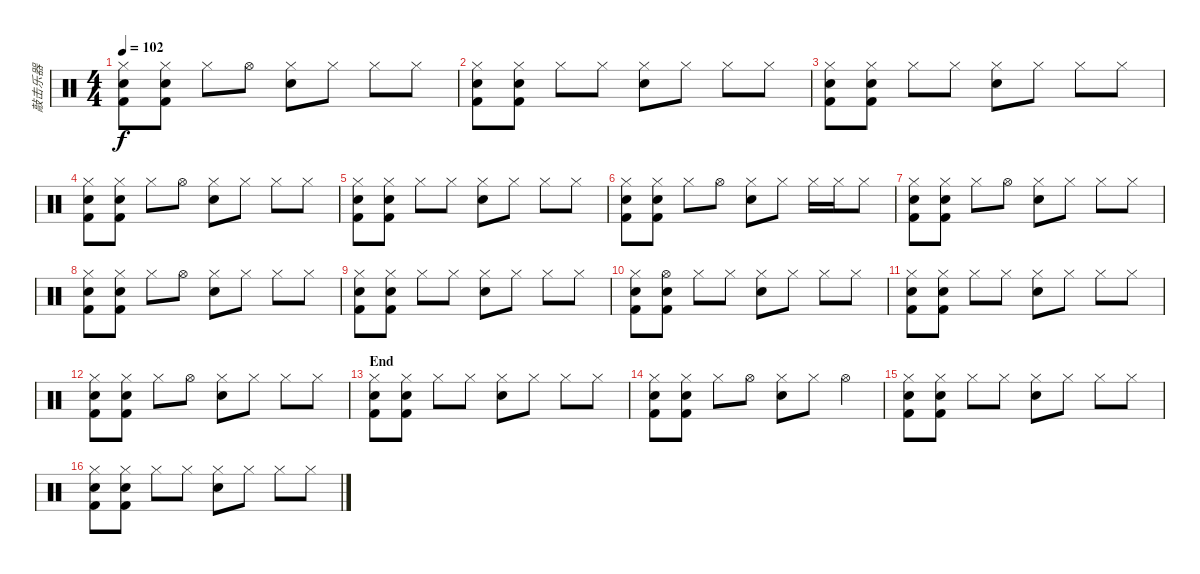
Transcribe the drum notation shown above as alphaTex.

\track ("敲击乐器" "敲击乐器") {instrument percussion}
\staff {score}
\articulation defaults
\ts (4 4)
\tempo 102
\clef neutral
\ks c
("Hi-Hat (closed)" "Kick (hit) 2" "Snare (hit)").8{dy f} ("Hi-Hat (closed)" "Kick (hit) 2" "Snare (hit)").8 "Hi-Hat (closed)".8 "Hi-Hat (open)".8 ("Hi-Hat (closed)" "Metronome (bell)").8 "Hi-Hat (closed)".8 "Hi-Hat (closed)".8 "Hi-Hat (closed)".8 |
("Hi-Hat (closed)" "Kick (hit) 2" "Snare (hit)").8 ("Hi-Hat (closed)" "Kick (hit) 2" "Snare (hit)").8 "Hi-Hat (closed)".8 "Hi-Hat (closed)".8 ("Hi-Hat (closed)" "Metronome (bell)").8 "Hi-Hat (closed)".8 "Hi-Hat (closed)".8 "Hi-Hat (closed)".8 |
("Hi-Hat (closed)" "Kick (hit) 2" "Snare (hit)").8 ("Hi-Hat (closed)" "Kick (hit) 2" "Snare (hit)").8 "Hi-Hat (closed)".8 "Hi-Hat (closed)".8 ("Hi-Hat (closed)" "Metronome (bell)").8 "Hi-Hat (closed)".8 "Hi-Hat (closed)".8 "Hi-Hat (closed)".8 |
("Hi-Hat (closed)" "Kick (hit) 2" "Snare (hit)").8 ("Hi-Hat (closed)" "Kick (hit) 2" "Snare (hit)").8 "Hi-Hat (closed)".8 "Hi-Hat (open)".8 ("Hi-Hat (closed)" "Metronome (bell)").8 "Hi-Hat (closed)".8 "Hi-Hat (closed)".8 "Hi-Hat (closed)".8 |
("Hi-Hat (closed)" "Kick (hit) 2" "Snare (hit)").8 ("Hi-Hat (closed)" "Kick (hit) 2" "Snare (hit)").8 "Hi-Hat (closed)".8 "Hi-Hat (closed)".8 ("Hi-Hat (closed)" "Metronome (bell)").8 "Hi-Hat (closed)".8 "Hi-Hat (closed)".8 "Hi-Hat (closed)".8 |
("Hi-Hat (closed)" "Kick (hit) 2" "Snare (hit)").8 ("Hi-Hat (closed)" "Kick (hit) 2" "Snare (hit)").8 "Hi-Hat (closed)".8 "Hi-Hat (open)".8 ("Hi-Hat (closed)" "Metronome (bell)").8 "Hi-Hat (closed)".8 "Hi-Hat (closed)".16 "Hi-Hat (closed)".16 "Hi-Hat (closed)".8 |
("Hi-Hat (closed)" "Kick (hit) 2" "Snare (hit)").8 ("Hi-Hat (closed)" "Kick (hit) 2" "Snare (hit)").8 "Hi-Hat (closed)".8 "Hi-Hat (open)".8 ("Hi-Hat (closed)" "Metronome (bell)").8 "Hi-Hat (closed)".8 "Hi-Hat (closed)".8 "Hi-Hat (closed)".8 |
("Hi-Hat (closed)" "Kick (hit) 2" "Snare (hit)").8 ("Hi-Hat (closed)" "Kick (hit) 2" "Snare (hit)").8 "Hi-Hat (closed)".8 "Hi-Hat (open)".8 ("Hi-Hat (closed)" "Metronome (bell)").8 "Hi-Hat (closed)".8 "Hi-Hat (closed)".8 "Hi-Hat (closed)".8 |
("Hi-Hat (closed)" "Kick (hit) 2" "Snare (hit)").8 ("Hi-Hat (closed)" "Kick (hit) 2" "Snare (hit)").8 "Hi-Hat (closed)".8 "Hi-Hat (closed)".8 ("Hi-Hat (closed)" "Metronome (bell)").8 "Hi-Hat (closed)".8 "Hi-Hat (closed)".8 "Hi-Hat (closed)".8 |
("Hi-Hat (closed)" "Kick (hit) 2" "Snare (hit)").8 ("Hi-Hat (open)" "Kick (hit) 2" "Snare (hit)").8 "Hi-Hat (closed)".8 "Hi-Hat (closed)".8 ("Hi-Hat (closed)" "Metronome (bell)").8 "Hi-Hat (closed)".8 "Hi-Hat (closed)".8 "Hi-Hat (closed)".8 |
("Hi-Hat (closed)" "Kick (hit) 2" "Snare (hit)").8 ("Hi-Hat (closed)" "Kick (hit) 2" "Snare (hit)").8 "Hi-Hat (closed)".8 "Hi-Hat (closed)".8 ("Hi-Hat (closed)" "Metronome (bell)").8 "Hi-Hat (closed)".8 "Hi-Hat (closed)".8 "Hi-Hat (closed)".8 |
("Hi-Hat (closed)" "Kick (hit) 2" "Snare (hit)").8 ("Hi-Hat (closed)" "Kick (hit) 2" "Snare (hit)").8 "Hi-Hat (closed)".8 "Hi-Hat (open)".8 ("Hi-Hat (closed)" "Metronome (bell)").8 "Hi-Hat (closed)".8 "Hi-Hat (closed)".8 "Hi-Hat (closed)".8 |
\section ("" "End")
("Hi-Hat (closed)" "Kick (hit) 2" "Snare (hit)").8 ("Hi-Hat (closed)" "Kick (hit) 2" "Snare (hit)").8 "Hi-Hat (closed)".8 "Hi-Hat (closed)".8 ("Hi-Hat (closed)" "Metronome (bell)").8 "Hi-Hat (closed)".8 "Hi-Hat (closed)".8 "Hi-Hat (closed)".8 |
("Hi-Hat (closed)" "Kick (hit) 2" "Snare (hit)").8 ("Hi-Hat (closed)" "Kick (hit) 2" "Snare (hit)").8 "Hi-Hat (closed)".8 "Hi-Hat (open)".8 ("Hi-Hat (closed)" "Metronome (bell)").8 "Hi-Hat (closed)".8 "Hi-Hat (open)".4 |
("Hi-Hat (closed)" "Kick (hit) 2" "Snare (hit)").8 ("Hi-Hat (closed)" "Kick (hit) 2" "Snare (hit)").8 "Hi-Hat (closed)".8 "Hi-Hat (closed)".8 ("Hi-Hat (closed)" "Metronome (bell)").8 "Hi-Hat (closed)".8 "Hi-Hat (closed)".8 "Hi-Hat (closed)".8 |
("Hi-Hat (closed)" "Kick (hit) 2" "Snare (hit)").8 ("Hi-Hat (closed)" "Kick (hit) 2" "Snare (hit)").8 "Hi-Hat (closed)".8 "Hi-Hat (closed)".8 ("Hi-Hat (closed)" "Metronome (bell)").8 "Hi-Hat (closed)".8 "Hi-Hat (closed)".8 "Hi-Hat (closed)".8
